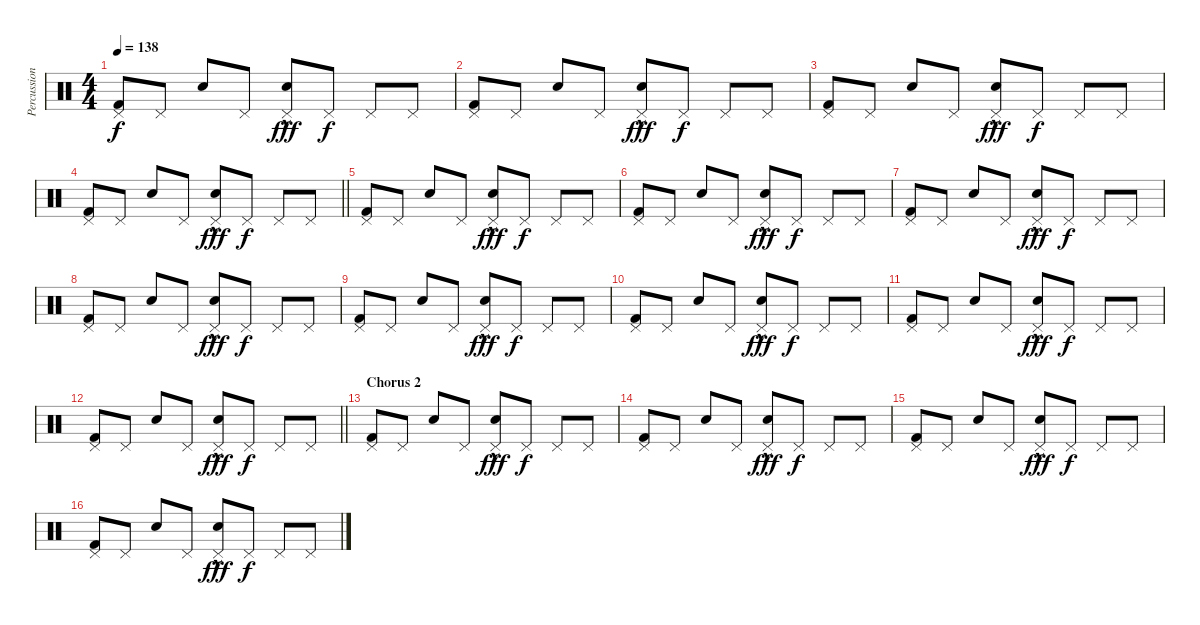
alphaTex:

\track ("Percussion" "Percussion") {instrument percussion}
\staff {score}
\articulation defaults
\ts (4 4)
\tempo 138
\clef neutral
\ks c
("Kick (hit) 2" "Pedal Hi-Hat (hit)").8{dy f} "Pedal Hi-Hat (hit)".8 "Snare (hit)".8 "Pedal Hi-Hat (hit)".8 ("Snare (hit) 2"{hac} "Pedal Hi-Hat (hit)").8{dy fff} "Pedal Hi-Hat (hit)".8{dy f} "Pedal Hi-Hat (hit)".8 "Pedal Hi-Hat (hit)".8 |
("Kick (hit) 2" "Pedal Hi-Hat (hit)").8 "Pedal Hi-Hat (hit)".8 "Snare (hit)".8 "Pedal Hi-Hat (hit)".8 ("Snare (hit) 2"{hac} "Pedal Hi-Hat (hit)").8{dy fff} "Pedal Hi-Hat (hit)".8{dy f} "Pedal Hi-Hat (hit)".8 "Pedal Hi-Hat (hit)".8 |
("Kick (hit) 2" "Pedal Hi-Hat (hit)").8 "Pedal Hi-Hat (hit)".8 "Snare (hit)".8 "Pedal Hi-Hat (hit)".8 ("Snare (hit) 2"{hac} "Pedal Hi-Hat (hit)").8{dy fff} "Pedal Hi-Hat (hit)".8{dy f} "Pedal Hi-Hat (hit)".8 "Pedal Hi-Hat (hit)".8 |
\barLineRight lightlight
("Kick (hit) 2" "Pedal Hi-Hat (hit)").8 "Pedal Hi-Hat (hit)".8 "Snare (hit)".8 "Pedal Hi-Hat (hit)".8 ("Snare (hit) 2"{hac} "Pedal Hi-Hat (hit)").8{dy fff} "Pedal Hi-Hat (hit)".8{dy f} "Pedal Hi-Hat (hit)".8 "Pedal Hi-Hat (hit)".8 |
("Kick (hit) 2" "Pedal Hi-Hat (hit)").8 "Pedal Hi-Hat (hit)".8 "Snare (hit)".8 "Pedal Hi-Hat (hit)".8 ("Snare (hit) 2"{hac} "Pedal Hi-Hat (hit)").8{dy fff} "Pedal Hi-Hat (hit)".8{dy f} "Pedal Hi-Hat (hit)".8 "Pedal Hi-Hat (hit)".8 |
("Kick (hit) 2" "Pedal Hi-Hat (hit)").8 "Pedal Hi-Hat (hit)".8 "Snare (hit)".8 "Pedal Hi-Hat (hit)".8 ("Snare (hit) 2"{hac} "Pedal Hi-Hat (hit)").8{dy fff} "Pedal Hi-Hat (hit)".8{dy f} "Pedal Hi-Hat (hit)".8 "Pedal Hi-Hat (hit)".8 |
("Kick (hit) 2" "Pedal Hi-Hat (hit)").8 "Pedal Hi-Hat (hit)".8 "Snare (hit)".8 "Pedal Hi-Hat (hit)".8 ("Snare (hit) 2"{hac} "Pedal Hi-Hat (hit)").8{dy fff} "Pedal Hi-Hat (hit)".8{dy f} "Pedal Hi-Hat (hit)".8 "Pedal Hi-Hat (hit)".8 |
("Kick (hit) 2" "Pedal Hi-Hat (hit)").8 "Pedal Hi-Hat (hit)".8 "Snare (hit)".8 "Pedal Hi-Hat (hit)".8 ("Snare (hit) 2"{hac} "Pedal Hi-Hat (hit)").8{dy fff} "Pedal Hi-Hat (hit)".8{dy f} "Pedal Hi-Hat (hit)".8 "Pedal Hi-Hat (hit)".8 |
("Kick (hit) 2" "Pedal Hi-Hat (hit)").8 "Pedal Hi-Hat (hit)".8 "Snare (hit)".8 "Pedal Hi-Hat (hit)".8 ("Snare (hit) 2"{hac} "Pedal Hi-Hat (hit)").8{dy fff} "Pedal Hi-Hat (hit)".8{dy f} "Pedal Hi-Hat (hit)".8 "Pedal Hi-Hat (hit)".8 |
("Kick (hit) 2" "Pedal Hi-Hat (hit)").8 "Pedal Hi-Hat (hit)".8 "Snare (hit)".8 "Pedal Hi-Hat (hit)".8 ("Snare (hit) 2"{hac} "Pedal Hi-Hat (hit)").8{dy fff} "Pedal Hi-Hat (hit)".8{dy f} "Pedal Hi-Hat (hit)".8 "Pedal Hi-Hat (hit)".8 |
("Kick (hit) 2" "Pedal Hi-Hat (hit)").8 "Pedal Hi-Hat (hit)".8 "Snare (hit)".8 "Pedal Hi-Hat (hit)".8 ("Snare (hit) 2"{hac} "Pedal Hi-Hat (hit)").8{dy fff} "Pedal Hi-Hat (hit)".8{dy f} "Pedal Hi-Hat (hit)".8 "Pedal Hi-Hat (hit)".8 |
\barLineRight lightlight
("Kick (hit) 2" "Pedal Hi-Hat (hit)").8 "Pedal Hi-Hat (hit)".8 "Snare (hit)".8 "Pedal Hi-Hat (hit)".8 ("Snare (hit) 2"{hac} "Pedal Hi-Hat (hit)").8{dy fff} "Pedal Hi-Hat (hit)".8{dy f} "Pedal Hi-Hat (hit)".8 "Pedal Hi-Hat (hit)".8 |
\section ("" "Chorus 2")
("Kick (hit) 2" "Pedal Hi-Hat (hit)").8 "Pedal Hi-Hat (hit)".8 "Snare (hit)".8 "Pedal Hi-Hat (hit)".8 ("Snare (hit) 2"{hac} "Pedal Hi-Hat (hit)").8{dy fff} "Pedal Hi-Hat (hit)".8{dy f} "Pedal Hi-Hat (hit)".8 "Pedal Hi-Hat (hit)".8 |
("Kick (hit) 2" "Pedal Hi-Hat (hit)").8 "Pedal Hi-Hat (hit)".8 "Snare (hit)".8 "Pedal Hi-Hat (hit)".8 ("Snare (hit) 2"{hac} "Pedal Hi-Hat (hit)").8{dy fff} "Pedal Hi-Hat (hit)".8{dy f} "Pedal Hi-Hat (hit)".8 "Pedal Hi-Hat (hit)".8 |
("Kick (hit) 2" "Pedal Hi-Hat (hit)").8 "Pedal Hi-Hat (hit)".8 "Snare (hit)".8 "Pedal Hi-Hat (hit)".8 ("Snare (hit) 2"{hac} "Pedal Hi-Hat (hit)").8{dy fff} "Pedal Hi-Hat (hit)".8{dy f} "Pedal Hi-Hat (hit)".8 "Pedal Hi-Hat (hit)".8 |
("Kick (hit) 2" "Pedal Hi-Hat (hit)").8 "Pedal Hi-Hat (hit)".8 "Snare (hit)".8 "Pedal Hi-Hat (hit)".8 ("Snare (hit) 2"{hac} "Pedal Hi-Hat (hit)").8{dy fff} "Pedal Hi-Hat (hit)".8{dy f} "Pedal Hi-Hat (hit)".8 "Pedal Hi-Hat (hit)".8
